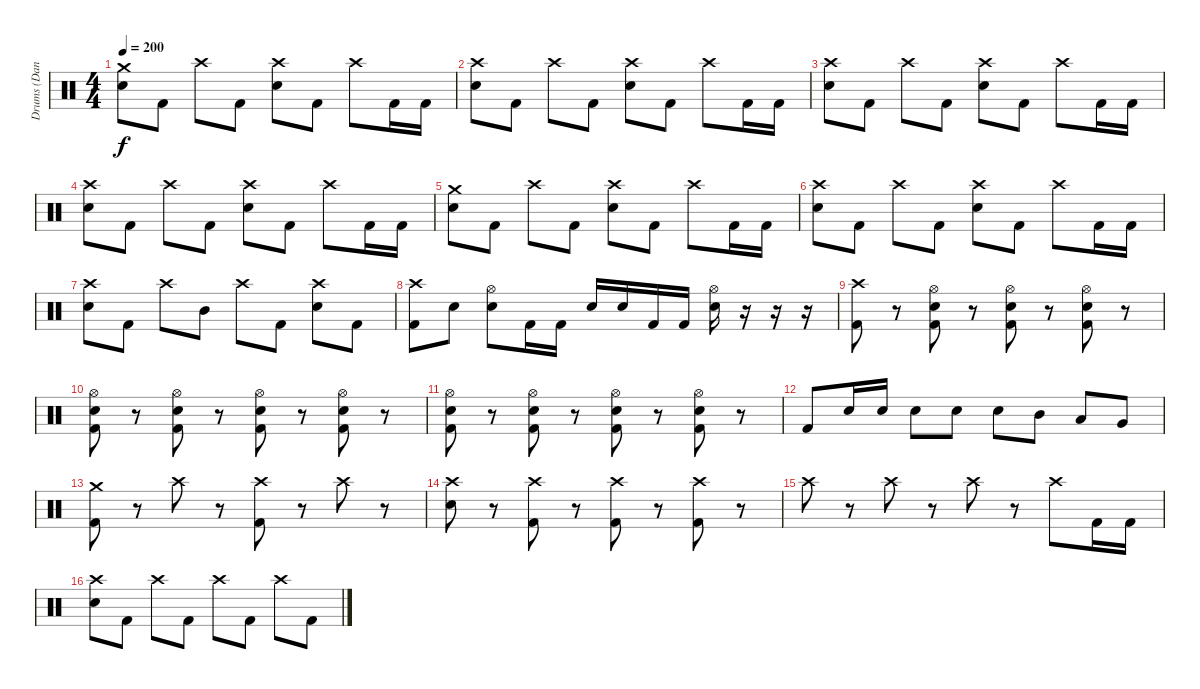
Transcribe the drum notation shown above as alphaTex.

\track ("Drums (Daniel)" "Drums (Dan") {instrument percussion}
\staff {score}
\articulation defaults
\ts (4 4)
\tempo 200
\clef neutral
\ks c
("Crash medium (hit)" "Electric Snare (hit)").8{dy f} "Kick (hit) 2".8 "Crash high (hit)".8 "Kick (hit) 2".8 ("Crash high (hit)" "Electric Snare (hit)").8 "Kick (hit) 2".8 "Crash high (hit)".8 "Kick (hit) 2".16 "Kick (hit) 2".16 |
("Crash high (hit)" "Electric Snare (hit)").8 "Kick (hit) 2".8 "Crash high (hit)".8 "Kick (hit) 2".8 ("Crash high (hit)" "Electric Snare (hit)").8 "Kick (hit) 2".8 "Crash high (hit)".8 "Kick (hit) 2".16 "Kick (hit) 2".16 |
("Crash high (hit)" "Electric Snare (hit)").8 "Kick (hit) 2".8 "Crash high (hit)".8 "Kick (hit) 2".8 ("Crash high (hit)" "Electric Snare (hit)").8 "Kick (hit) 2".8 "Crash high (hit)".8 "Kick (hit) 2".16 "Kick (hit) 2".16 |
("Crash high (hit)" "Electric Snare (hit)").8 "Kick (hit) 2".8 "Crash high (hit)".8 "Kick (hit) 2".8 ("Crash high (hit)" "Electric Snare (hit)").8 "Kick (hit) 2".8 "Crash high (hit)".8 "Kick (hit) 2".16 "Kick (hit) 2".16 |
("Crash medium (hit)" "Electric Snare (hit)").8 "Kick (hit) 2".8 "Crash high (hit)".8 "Kick (hit) 2".8 ("Crash high (hit)" "Electric Snare (hit)").8 "Kick (hit) 2".8 "Crash high (hit)".8 "Kick (hit) 2".16 "Kick (hit) 2".16 |
("Crash high (hit)" "Electric Snare (hit)").8 "Kick (hit) 2".8 "Crash high (hit)".8 "Kick (hit) 2".8 ("Crash high (hit)" "Electric Snare (hit)").8 "Kick (hit) 2".8 "Crash high (hit)".8 "Kick (hit) 2".16 "Kick (hit) 2".16 |
("Crash high (hit)" "Electric Snare (hit)").8 "Kick (hit) 2".8 "Crash high (hit)".8 "Mid Tom (hit)".8 "Crash high (hit)".8 "Kick (hit) 2".8 ("Crash high (hit)" "Electric Snare (hit)").8 "Kick (hit) 2".8 |
("Crash high (hit)" "Kick (hit) 2").8 "Electric Snare (hit)".8 ("Hi-Hat (open)" "Electric Snare (hit)").8 "Kick (hit) 2".16 "Kick (hit) 2".16 "Electric Snare (hit)".16 "Electric Snare (hit)".16 "Kick (hit) 2".16 "Kick (hit) 2".16 ("Hi-Hat (open)" "Electric Snare (hit)").16 r.16 r.16 r.16 |
("Crash high (hit)" "Kick (hit) 2").8 r.8 ("Hi-Hat (open)" "Electric Snare (hit)" "Kick (hit) 2").8 r.8 ("Hi-Hat (open)" "Electric Snare (hit)" "Kick (hit) 2").8 r.8 ("Hi-Hat (open)" "Electric Snare (hit)" "Kick (hit) 2").8 r.8 |
("Hi-Hat (open)" "Electric Snare (hit)" "Kick (hit) 2").8 r.8 ("Hi-Hat (open)" "Electric Snare (hit)" "Kick (hit) 2").8 r.8 ("Hi-Hat (open)" "Electric Snare (hit)" "Kick (hit) 2").8 r.8 ("Hi-Hat (open)" "Electric Snare (hit)" "Kick (hit) 2").8 r.8 |
("Hi-Hat (open)" "Electric Snare (hit)" "Kick (hit) 2").8 r.8 ("Hi-Hat (open)" "Electric Snare (hit)" "Kick (hit) 2").8 r.8 ("Hi-Hat (open)" "Electric Snare (hit)" "Kick (hit) 2").8 r.8 ("Hi-Hat (open)" "Electric Snare (hit)" "Kick (hit) 2").8 r.8 |
"Kick (hit) 2".8 "Electric Snare (hit)".16 "Electric Snare (hit)".16 "Electric Snare (hit)".8 "Electric Snare (hit)".8 "Electric Snare (hit)".8 "Mid Tom (hit)".8 "Low Tom (hit)".8 "Very Low Tom (hit)".8 |
("Crash medium (hit)" "Kick (hit) 2").8 r.8 "Crash high (hit)".8 r.8 ("Crash high (hit)" "Kick (hit) 2").8 r.8 "Crash high (hit)".8 r.8 |
("Crash high (hit)" "Electric Snare (hit)").8 r.8 ("Crash high (hit)" "Kick (hit) 2").8 r.8 ("Crash high (hit)" "Kick (hit) 2").8 r.8 ("Crash high (hit)" "Kick (hit) 2").8 r.8 |
"Crash high (hit)".8 r.8 "Crash high (hit)".8 r.8 "Crash high (hit)".8 r.8 "Crash high (hit)".8 "Kick (hit) 2".16 "Kick (hit) 2".16 |
("Crash high (hit)" "Electric Snare (hit)").8 "Kick (hit) 2".8 "Crash high (hit)".8 "Kick (hit) 2".8 "Crash high (hit)".8 "Kick (hit) 2".8 "Crash high (hit)".8 "Kick (hit) 2".8
